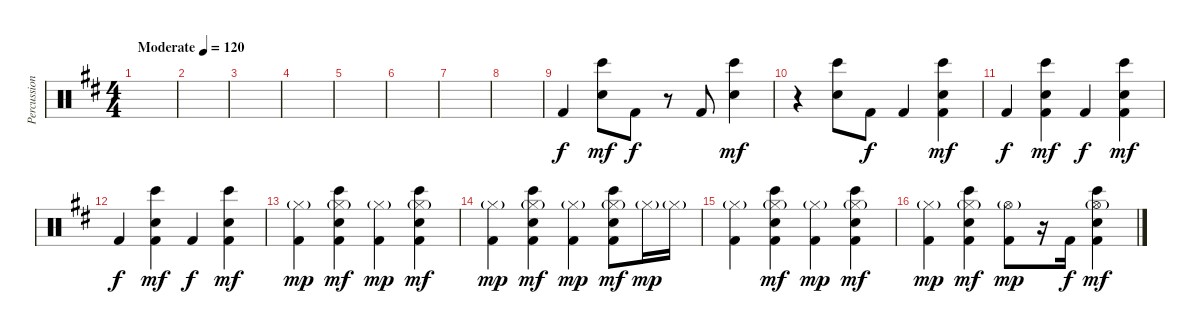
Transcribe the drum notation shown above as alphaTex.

\track ("Percussion" "Percussion") {instrument percussion}
\staff {score}
\articulation defaults
\ts (4 4)
\tempo (120 "Moderate")
\clef neutral
\ks d
|
|
|
|
|
|
|
|
"Kick (hit) 2".4 ("Snare (hit) 2" "Bongo High (hit)").8{dy mf} "Kick (hit) 2".8{dy f} r.8 "Kick (hit) 2".8 ("Snare (hit) 2" "Bongo High (hit)").4{dy mf} |
r.4 ("Snare (hit) 2" "Bongo High (hit)").8 "Kick (hit) 2".8{dy f} "Kick (hit) 2".4 ("Snare (hit) 2" "Bongo High (hit)" "Kick (hit) 2").4{dy mf} |
"Kick (hit) 2".4{dy f} ("Snare (hit) 2" "Bongo High (hit)" "Kick (hit) 2").4{dy mf} "Kick (hit) 2".4{dy f} ("Snare (hit) 2" "Bongo High (hit)" "Kick (hit) 2").4{dy mf} |
"Kick (hit) 2".4{dy f} ("Snare (hit) 2" "Bongo High (hit)" "Kick (hit) 2").4{dy mf} "Kick (hit) 2".4{dy f} ("Snare (hit) 2" "Bongo High (hit)" "Kick (hit) 2").4{dy mf} |
("Hi-Hat (closed)"{g} "Kick (hit) 2").4{dy mp} ("Hi-Hat (closed)"{g} "Snare (hit) 2" "Bongo High (hit)" "Kick (hit) 2").4{dy mf} ("Hi-Hat (closed)"{g} "Kick (hit) 2").4{dy mp} ("Hi-Hat (closed)"{g} "Snare (hit) 2" "Bongo High (hit)" "Kick (hit) 2").4{dy mf} |
("Hi-Hat (closed)"{g} "Kick (hit) 2").4{dy mp} ("Hi-Hat (closed)"{g} "Snare (hit) 2" "Bongo High (hit)" "Kick (hit) 2").4{dy mf} ("Hi-Hat (closed)"{g} "Kick (hit) 2").4{dy mp} ("Hi-Hat (closed)"{g} "Snare (hit) 2" "Bongo High (hit)" "Kick (hit) 2").8{dy mf} "Hi-Hat (closed)"{g}.16{dy mp} "Hi-Hat (closed)"{g}.16 |
("Hi-Hat (closed)"{g} "Kick (hit) 2").4 ("Hi-Hat (closed)"{g} "Snare (hit) 2" "Bongo High (hit)" "Kick (hit) 2").4{dy mf} ("Hi-Hat (closed)"{g} "Kick (hit) 2").4{dy mp} ("Hi-Hat (closed)"{g} "Snare (hit) 2" "Bongo High (hit)" "Kick (hit) 2").4{dy mf} |
("Hi-Hat (closed)"{g} "Kick (hit) 2").4{dy mp} ("Hi-Hat (closed)"{g} "Snare (hit) 2" "Bongo High (hit)" "Kick (hit) 2").4{dy mf} ("Hi-Hat (open)"{g} "Kick (hit) 2").8{dy mp} r.16 "Kick (hit) 2".16{dy f} ("Hi-Hat (open)"{g} "Snare (hit) 2" "Bongo High (hit)" "Kick (hit) 2").4{dy mf}
